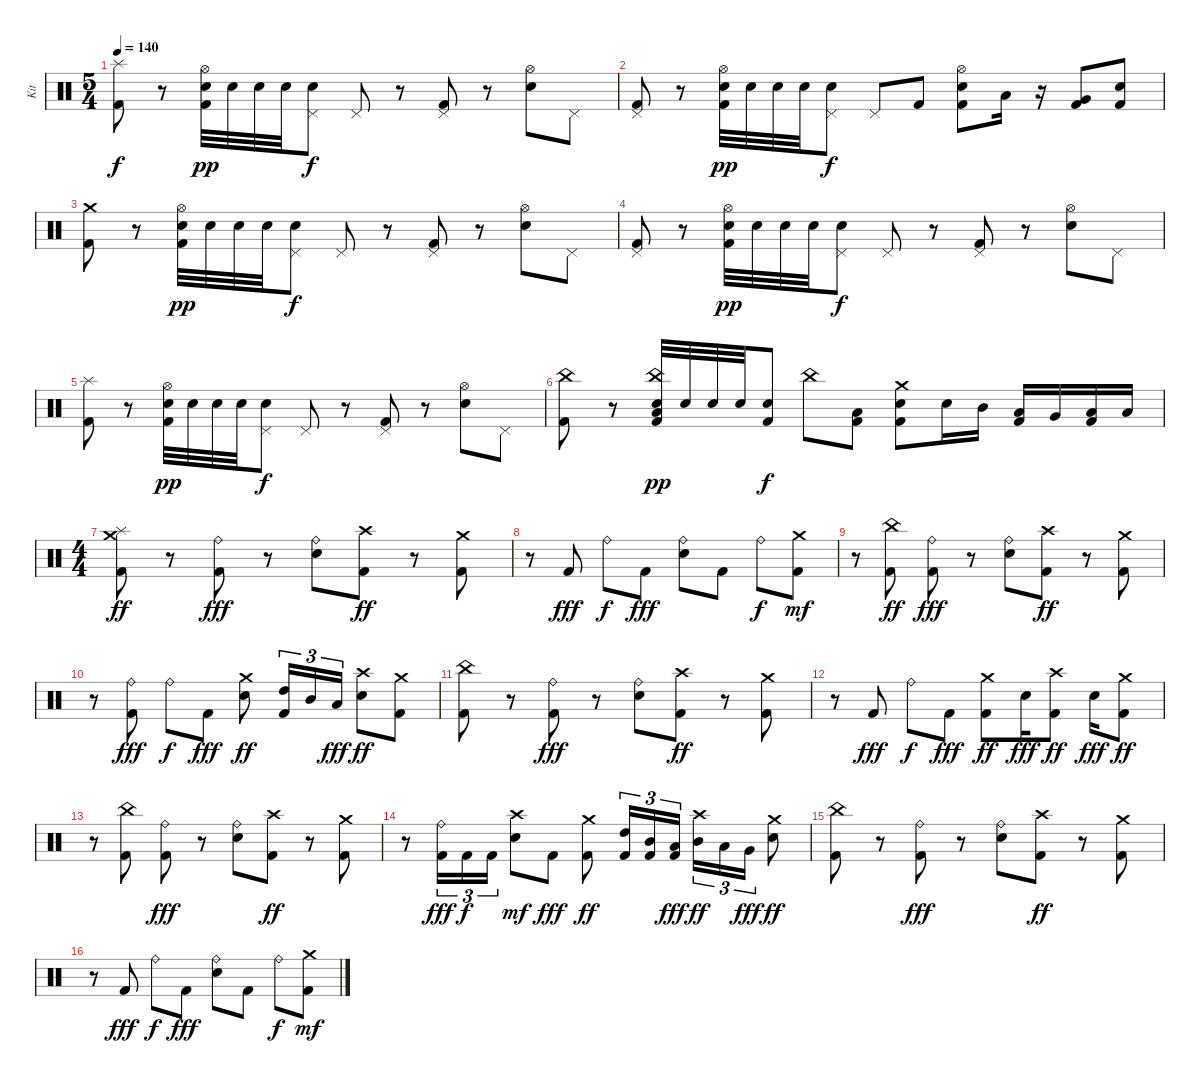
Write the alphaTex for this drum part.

\track ("Kit" "Kit") {instrument percussion}
\staff {score}
\articulation defaults
\ts (5 4)
\tempo 140
\clef neutral
\ks c
("Kick (hit) 2" "Splash (hit)").8{dy f} r.8 ("Kick (hit) 2" "Snare (hit) 2" "Hi-Hat (open)").32{dy pp} "Snare (hit) 2".32 "Snare (hit) 2".32 "Snare (hit) 2".32 ("Snare (hit) 2" "Pedal Hi-Hat (hit)").8{dy f} "Pedal Hi-Hat (hit)".8 r.8 ("Kick (hit) 2" "Pedal Hi-Hat (hit)").8 r.8 ("Snare (hit) 2" "Hi-Hat (open)").8 "Pedal Hi-Hat (hit)".8 |
("Kick (hit) 2" "Pedal Hi-Hat (hit)").8 r.8 ("Kick (hit) 2" "Snare (hit) 2" "Hi-Hat (open)").32{dy pp} "Snare (hit) 2".32 "Snare (hit) 2".32 "Snare (hit) 2".32 ("Snare (hit) 2" "Pedal Hi-Hat (hit)").8{dy f} "Pedal Hi-Hat (hit)".8 "Kick (hit) 2".8 ("Kick (hit) 2" "Snare (hit) 2" "Hi-Hat (open)").8 "Low Tom (hit)".16 r.16 ("Kick (hit) 2" "Very Low Tom (hit)").8 ("Kick (hit) 2" "Snare (hit) 2").8 |
("Kick (hit) 2" "Crash medium (hit)").8 r.8 ("Kick (hit) 2" "Snare (hit) 2" "Hi-Hat (open)").32{dy pp} "Snare (hit) 2".32 "Snare (hit) 2".32 "Snare (hit) 2".32 ("Snare (hit) 2" "Pedal Hi-Hat (hit)").8{dy f} "Pedal Hi-Hat (hit)".8 r.8 ("Kick (hit) 2" "Pedal Hi-Hat (hit)").8 r.8 ("Snare (hit) 2" "Hi-Hat (open)").8 "Pedal Hi-Hat (hit)".8 |
("Kick (hit) 2" "Pedal Hi-Hat (hit)").8 r.8 ("Kick (hit) 2" "Snare (hit) 2" "Hi-Hat (open)").32{dy pp} "Snare (hit) 2".32 "Snare (hit) 2".32 "Snare (hit) 2".32 ("Snare (hit) 2" "Pedal Hi-Hat (hit)").8{dy f} "Pedal Hi-Hat (hit)".8 r.8 ("Kick (hit) 2" "Pedal Hi-Hat (hit)").8 r.8 ("Snare (hit) 2" "Hi-Hat (open)").8 "Pedal Hi-Hat (hit)".8 |
("Kick (hit) 2" "Splash (hit)").8 r.8 ("Kick (hit) 2" "Snare (hit) 2" "Hi-Hat (open)").32{dy pp} "Snare (hit) 2".32 "Snare (hit) 2".32 "Snare (hit) 2".32 ("Snare (hit) 2" "Pedal Hi-Hat (hit)").8{dy f} "Pedal Hi-Hat (hit)".8 r.8 ("Kick (hit) 2" "Pedal Hi-Hat (hit)").8 r.8 ("Snare (hit) 2" "Hi-Hat (open)").8 "Pedal Hi-Hat (hit)".8 |
("Kick (hit) 2" "China (hit)").8 r.8 ("Kick (hit) 2" "Snare (hit) 2" "Low Floor Tom (hit)" "China (hit)").32{dy pp} "Snare (hit) 2".32 "Snare (hit) 2".32 "Snare (hit) 2".32 ("Kick (hit) 2" "Snare (hit) 2").8{dy f} "China (hit)".8 ("Kick (hit) 2" "Low Floor Tom (hit)").8 ("Kick (hit) 2" "Snare (hit) 2" "Crash medium (hit)").8 "Snare (hit) 2".16 "Mid Tom (hit)".16 ("Kick (hit) 2" "Low Tom (hit)").16 "Very Low Tom (hit)".16 ("Kick (hit) 2" "Low Floor Tom (hit)").16 "Low Floor Tom (hit)".16 |
\ts (4 4)
("Kick (hit) 2" "Splash (hit)" "Crash medium (hit)").8{dy ff} r.8 ("Kick (hit) 2" "Ride (bell)").8{dy fff} r.8 ("Snare (hit) 2" "Ride (bell)").8 ("Kick (hit) 2" "Crash high (hit)").8{dy ff} r.8 ("Kick (hit) 2" "Crash medium (hit)").8 |
r.8 "Kick (hit) 2".8{dy fff} "Ride (bell)".8{dy f} "Kick (hit) 2".8{dy fff} ("Snare (hit) 2" "Ride (bell)").8 "Kick (hit) 2".8 "Ride (bell)".8{dy f} ("Kick (hit) 2" "Crash medium (hit)").8{dy mf} |
r.8 ("Kick (hit) 2" "China (hit)").8{dy ff} ("Kick (hit) 2" "Ride (bell)").8{dy fff} r.8 ("Snare (hit) 2" "Ride (bell)").8 ("Kick (hit) 2" "Crash high (hit)").8{dy ff} r.8 ("Kick (hit) 2" "Crash medium (hit)").8 |
r.8 ("Kick (hit) 2" "Ride (bell)").8{dy fff} "Ride (bell)".8{dy f} "Kick (hit) 2".8{dy fff} ("Snare (hit) 2" "Crash medium (hit)").8{dy ff} ("Kick (hit) 2" "High Tom (hit)").16{tu (3 2)} "Mid Tom (hit)".16{tu (3 2)} "Low Tom (hit)".16{tu (3 2) dy fff} ("Snare (hit) 2" "Crash high (hit)").8{dy ff} ("Kick (hit) 2" "Crash medium (hit)").8 |
("Kick (hit) 2" "China (hit)").8 r.8 ("Kick (hit) 2" "Ride (bell)").8{dy fff} r.8 ("Snare (hit) 2" "Ride (bell)").8 ("Kick (hit) 2" "Crash high (hit)").8{dy ff} r.8 ("Kick (hit) 2" "Crash medium (hit)").8 |
r.8 "Kick (hit) 2".8{dy fff} "Ride (bell)".8{dy f} "Kick (hit) 2".8{dy fff} ("Kick (hit) 2" "Crash medium (hit)").8{dy ff} "Snare (hit) 2".16{dy fff} ("Kick (hit) 2" "Crash high (hit)").8{dy ff} "Snare (hit) 2".16{dy fff} ("Kick (hit) 2" "Crash medium (hit)").8{dy ff} |
r.8 ("Kick (hit) 2" "China (hit)").8 ("Kick (hit) 2" "Ride (bell)").8{dy fff} r.8 ("Snare (hit) 2" "Ride (bell)").8 ("Kick (hit) 2" "Crash high (hit)").8{dy ff} r.8 ("Kick (hit) 2" "Crash medium (hit)").8 |
r.8 ("Kick (hit) 2" "Ride (bell)").16{tu (3 2) dy fff} "Kick (hit) 2".16{tu (3 2) dy f} "Kick (hit) 2".16{tu (3 2)} ("Snare (hit) 2" "Crash high (hit)").8{dy mf} "Kick (hit) 2".8{dy fff} ("Kick (hit) 2" "Crash medium (hit)").8{dy ff} ("Kick (hit) 2" "High Tom (hit)").16{tu (3 2)} ("Kick (hit) 2" "Mid Tom (hit)").16{tu (3 2)} ("Kick (hit) 2" "Low Tom (hit)").16{tu (3 2) dy fff} ("Mid Tom (hit)" "Crash high (hit)").16{tu (3 2) dy ff} "Low Tom (hit)".16{tu (3 2)} "Very Low Tom (hit)".16{tu (3 2) dy fff} ("Snare (hit) 2" "Crash medium (hit)").8{dy ff} |
("Kick (hit) 2" "China (hit)").8 r.8 ("Kick (hit) 2" "Ride (bell)").8{dy fff} r.8 ("Snare (hit) 2" "Ride (bell)").8 ("Kick (hit) 2" "Crash high (hit)").8{dy ff} r.8 ("Kick (hit) 2" "Crash medium (hit)").8 |
r.8 "Kick (hit) 2".8{dy fff} "Ride (bell)".8{dy f} "Kick (hit) 2".8{dy fff} ("Snare (hit) 2" "Ride (bell)").8 "Kick (hit) 2".8 "Ride (bell)".8{dy f} ("Kick (hit) 2" "Crash medium (hit)").8{dy mf}
